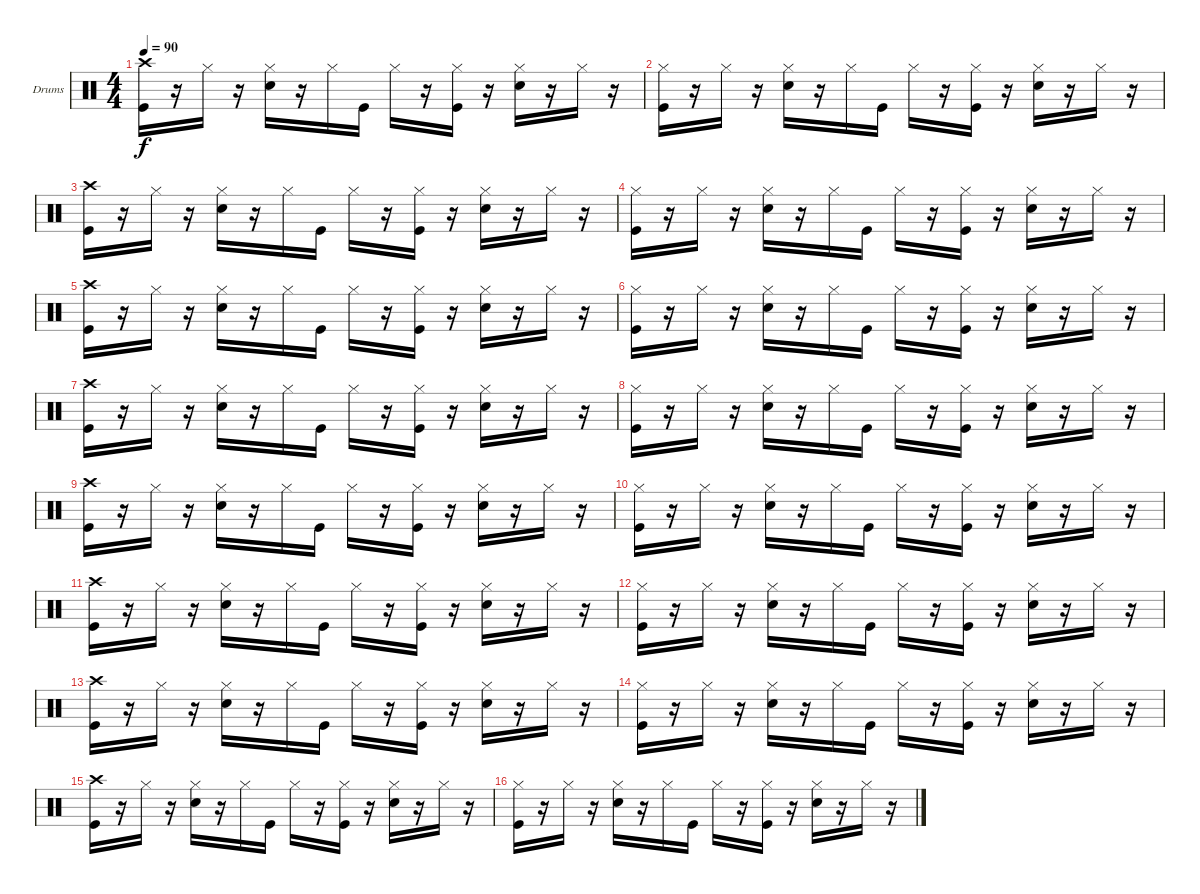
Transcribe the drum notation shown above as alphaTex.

\defaultSystemsLayout 4
\bracketExtendMode groupsimilarinstruments
\firstSystemTrackNameOrientation horizontal
\otherSystemsTrackNameOrientation horizontal
\track ("Павел Тетерин(Pa$ok)" "Drums") {instrument percussion}
\staff {score}
\articulation defaults
\ts (4 4)
\tempo 90
\clef neutral
\scale
0.472222
\ks c
("Crash high (hit)" "Kick (hit)").16{dy f} r.16 "Hi-Hat (closed)".16 r.16 ("Hi-Hat (closed)" "Snare (hit) 2").16 r.16 "Hi-Hat (closed)".16 "Kick (hit)".16 "Hi-Hat (closed)".16 r.16 ("Hi-Hat (closed)" "Kick (hit)").16 r.16 ("Hi-Hat (closed)" "Snare (hit) 2").16 r.16 "Hi-Hat (closed)".16 r.16 |
\scale
0.263889 ("Hi-Hat (closed)" "Kick (hit)").16 r.16 "Hi-Hat (closed)".16 r.16 ("Hi-Hat (closed)" "Snare (hit) 2").16 r.16 "Hi-Hat (closed)".16 "Kick (hit)".16 "Hi-Hat (closed)".16 r.16 ("Hi-Hat (closed)" "Kick (hit)").16 r.16 ("Hi-Hat (closed)" "Snare (hit) 2").16 r.16 "Hi-Hat (closed)".16 r.16 |
\scale
0.263889 ("Crash high (hit)" "Kick (hit)").16 r.16 "Hi-Hat (closed)".16 r.16 ("Hi-Hat (closed)" "Snare (hit) 2").16 r.16 "Hi-Hat (closed)".16 "Kick (hit)".16 "Hi-Hat (closed)".16 r.16 ("Hi-Hat (closed)" "Kick (hit)").16 r.16 ("Hi-Hat (closed)" "Snare (hit) 2").16 r.16 "Hi-Hat (closed)".16 r.16 |
\scale
0.333333 ("Hi-Hat (closed)" "Kick (hit)").16 r.16 "Hi-Hat (closed)".16 r.16 ("Hi-Hat (closed)" "Snare (hit) 2").16 r.16 "Hi-Hat (closed)".16 "Kick (hit)".16 "Hi-Hat (closed)".16 r.16 ("Hi-Hat (closed)" "Kick (hit)").16 r.16 ("Hi-Hat (closed)" "Snare (hit) 2").16 r.16 "Hi-Hat (closed)".16 r.16 |
\scale
0.333333 ("Crash high (hit)" "Kick (hit)").16 r.16 "Hi-Hat (closed)".16 r.16 ("Hi-Hat (closed)" "Snare (hit) 2").16 r.16 "Hi-Hat (closed)".16 "Kick (hit)".16 "Hi-Hat (closed)".16 r.16 ("Hi-Hat (closed)" "Kick (hit)").16 r.16 ("Hi-Hat (closed)" "Snare (hit) 2").16 r.16 "Hi-Hat (closed)".16 r.16 |
\scale
0.333333 ("Hi-Hat (closed)" "Kick (hit)").16 r.16 "Hi-Hat (closed)".16 r.16 ("Hi-Hat (closed)" "Snare (hit) 2").16 r.16 "Hi-Hat (closed)".16 "Kick (hit)".16 "Hi-Hat (closed)".16 r.16 ("Hi-Hat (closed)" "Kick (hit)").16 r.16 ("Hi-Hat (closed)" "Snare (hit) 2").16 r.16 "Hi-Hat (closed)".16 r.16 |
\scale
0.333333 ("Crash high (hit)" "Kick (hit)").16 r.16 "Hi-Hat (closed)".16 r.16 ("Hi-Hat (closed)" "Snare (hit) 2").16 r.16 "Hi-Hat (closed)".16 "Kick (hit)".16 "Hi-Hat (closed)".16 r.16 ("Hi-Hat (closed)" "Kick (hit)").16 r.16 ("Hi-Hat (closed)" "Snare (hit) 2").16 r.16 "Hi-Hat (closed)".16 r.16 |
\scale
0.333333 ("Hi-Hat (closed)" "Kick (hit)").16 r.16 "Hi-Hat (closed)".16 r.16 ("Hi-Hat (closed)" "Snare (hit) 2").16 r.16 "Hi-Hat (closed)".16 "Kick (hit)".16 "Hi-Hat (closed)".16 r.16 ("Hi-Hat (closed)" "Kick (hit)").16 r.16 ("Hi-Hat (closed)" "Snare (hit) 2").16 r.16 "Hi-Hat (closed)".16 r.16 |
\scale
0.333333 ("Crash high (hit)" "Kick (hit)").16 r.16 "Hi-Hat (closed)".16 r.16 ("Hi-Hat (closed)" "Snare (hit) 2").16 r.16 "Hi-Hat (closed)".16 "Kick (hit)".16 "Hi-Hat (closed)".16 r.16 ("Hi-Hat (closed)" "Kick (hit)").16 r.16 ("Hi-Hat (closed)" "Snare (hit) 2").16 r.16 "Hi-Hat (closed)".16 r.16 |
\scale
0.333333 ("Hi-Hat (closed)" "Kick (hit)").16 r.16 "Hi-Hat (closed)".16 r.16 ("Hi-Hat (closed)" "Snare (hit) 2").16 r.16 "Hi-Hat (closed)".16 "Kick (hit)".16 "Hi-Hat (closed)".16 r.16 ("Hi-Hat (closed)" "Kick (hit)").16 r.16 ("Hi-Hat (closed)" "Snare (hit) 2").16 r.16 "Hi-Hat (closed)".16 r.16 |
\scale
0.333333 ("Crash high (hit)" "Kick (hit)").16 r.16 "Hi-Hat (closed)".16 r.16 ("Hi-Hat (closed)" "Snare (hit) 2").16 r.16 "Hi-Hat (closed)".16 "Kick (hit)".16 "Hi-Hat (closed)".16 r.16 ("Hi-Hat (closed)" "Kick (hit)").16 r.16 ("Hi-Hat (closed)" "Snare (hit) 2").16 r.16 "Hi-Hat (closed)".16 r.16 |
\scale
0.333333 ("Hi-Hat (closed)" "Kick (hit)").16 r.16 "Hi-Hat (closed)".16 r.16 ("Hi-Hat (closed)" "Snare (hit) 2").16 r.16 "Hi-Hat (closed)".16 "Kick (hit)".16 "Hi-Hat (closed)".16 r.16 ("Hi-Hat (closed)" "Kick (hit)").16 r.16 ("Hi-Hat (closed)" "Snare (hit) 2").16 r.16 "Hi-Hat (closed)".16 r.16 |
\scale
0.333333 ("Crash high (hit)" "Kick (hit)").16 r.16 "Hi-Hat (closed)".16 r.16 ("Hi-Hat (closed)" "Snare (hit) 2").16 r.16 "Hi-Hat (closed)".16 "Kick (hit)".16 "Hi-Hat (closed)".16 r.16 ("Hi-Hat (closed)" "Kick (hit)").16 r.16 ("Hi-Hat (closed)" "Snare (hit) 2").16 r.16 "Hi-Hat (closed)".16 r.16 |
\scale
0.333333 ("Hi-Hat (closed)" "Kick (hit)").16 r.16 "Hi-Hat (closed)".16 r.16 ("Hi-Hat (closed)" "Snare (hit) 2").16 r.16 "Hi-Hat (closed)".16 "Kick (hit)".16 "Hi-Hat (closed)".16 r.16 ("Hi-Hat (closed)" "Kick (hit)").16 r.16 ("Hi-Hat (closed)" "Snare (hit) 2").16 r.16 "Hi-Hat (closed)".16 r.16 |
\scale
0.333333 ("Crash high (hit)" "Kick (hit)").16 r.16 "Hi-Hat (closed)".16 r.16 ("Hi-Hat (closed)" "Snare (hit) 2").16 r.16 "Hi-Hat (closed)".16 "Kick (hit)".16 "Hi-Hat (closed)".16 r.16 ("Hi-Hat (closed)" "Kick (hit)").16 r.16 ("Hi-Hat (closed)" "Snare (hit) 2").16 r.16 "Hi-Hat (closed)".16 r.16 |
\scale
0.333333 ("Hi-Hat (closed)" "Kick (hit)").16 r.16 "Hi-Hat (closed)".16 r.16 ("Hi-Hat (closed)" "Snare (hit) 2").16 r.16 "Hi-Hat (closed)".16 "Kick (hit)".16 "Hi-Hat (closed)".16 r.16 ("Hi-Hat (closed)" "Kick (hit)").16 r.16 ("Hi-Hat (closed)" "Snare (hit) 2").16 r.16 "Hi-Hat (closed)".16 r.16
